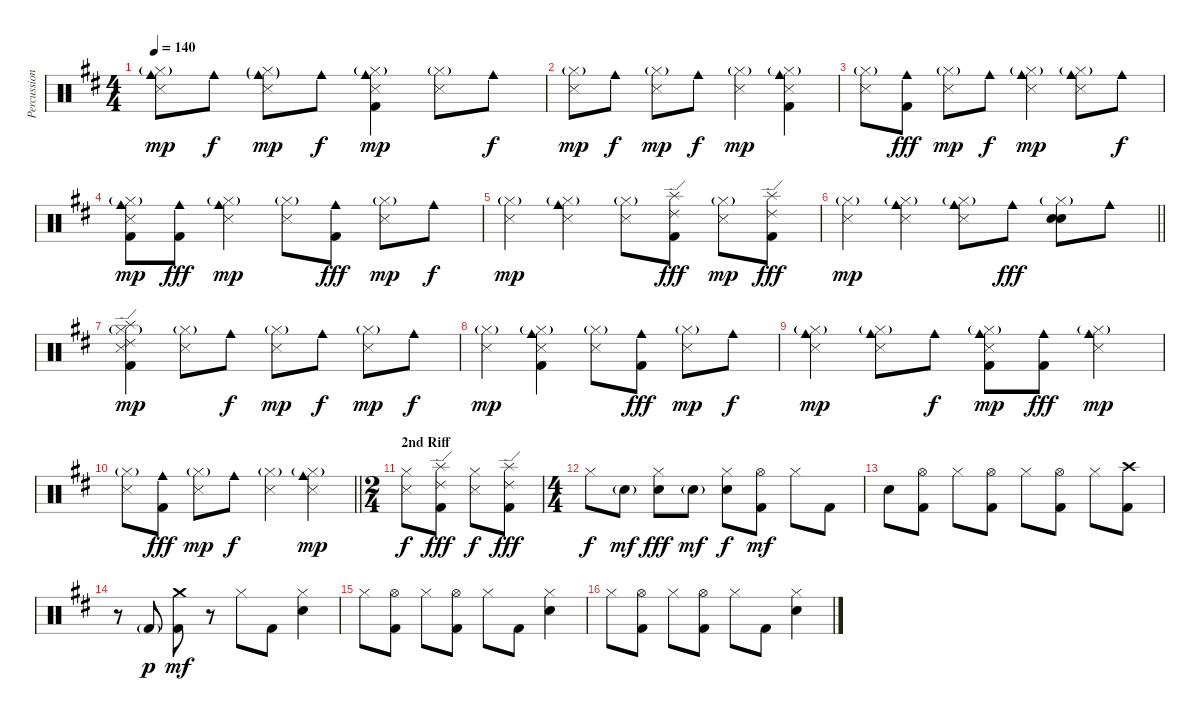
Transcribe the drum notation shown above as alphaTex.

\track ("Percussions" "Percussion") {instrument percussion}
\staff {score}
\articulation defaults
\ts (4 4)
\tempo 140
\clef neutral
\ks d
("Cowbell medium (hit)" "Snare (side stick) 3" "Hi-Hat (closed)"{g}).8{dy mp} "Cowbell medium (hit)".8{dy f} ("Cowbell medium (hit)"{g} "Snare (side stick) 3" "Hi-Hat (closed)"{g}).8{dy mp} "Cowbell medium (hit)".8{dy f} ("Cowbell medium (hit)" "Snare (side stick) 3" "Kick (hit) 2" "Hi-Hat (closed)"{g}).4{dy mp} ("Snare (side stick) 3" "Hi-Hat (closed)"{g}).8 "Cowbell medium (hit)".8{dy f} |
("Snare (side stick) 3" "Hi-Hat (closed)"{g}).8{dy mp} "Cowbell medium (hit)".8{dy f} ("Snare (side stick) 3" "Hi-Hat (closed)"{g}).8{dy mp} "Cowbell medium (hit)".8{dy f} ("Snare (side stick) 3" "Hi-Hat (closed)"{g}).4{dy mp} ("Cowbell medium (hit)" "Snare (side stick) 3" "Kick (hit) 2" "Hi-Hat (closed)"{g}).4 |
("Snare (side stick) 3" "Hi-Hat (closed)"{g}).8 ("Cowbell medium (hit)" "Kick (hit) 2").8{dy fff} ("Snare (side stick) 3" "Hi-Hat (closed)"{g}).8{dy mp} "Cowbell medium (hit)".8{dy f} ("Cowbell medium (hit)" "Snare (side stick) 3" "Hi-Hat (closed)"{g}).4{dy mp} ("Cowbell medium (hit)" "Snare (side stick) 3" "Hi-Hat (closed)"{g}).8 "Cowbell medium (hit)".8{dy f} |
("Cowbell medium (hit)" "Snare (side stick) 3" "Kick (hit) 2" "Hi-Hat (closed)"{g}).8{dy mp} ("Cowbell medium (hit)" "Kick (hit) 2").8{dy fff} ("Cowbell medium (hit)" "Snare (side stick) 3" "Hi-Hat (closed)"{g}).4{dy mp} ("Snare (side stick) 3" "Hi-Hat (closed)"{g}).8 ("Cowbell medium (hit)" "Kick (hit) 2").8{dy fff} ("Snare (side stick) 3" "Hi-Hat (closed)"{g}).8{dy mp} "Cowbell medium (hit)".8{dy f} |
("Snare (side stick) 3" "Hi-Hat (closed)"{g}).4{dy mp} ("Cowbell medium (hit)" "Snare (side stick) 3" "Hi-Hat (closed)"{g}).4 ("Snare (side stick) 3" "Hi-Hat (closed)"{g}).8 ("Ride (edge) 2" "Splash (hit)" "Kick (hit) 2").8{dy fff} ("Snare (side stick) 3" "Hi-Hat (closed)"{g}).8{dy mp} ("Ride (edge) 2" "Splash (hit)" "Kick (hit) 2").8{dy fff} |
\barLineRight lightlight
("Snare (side stick) 3" "Hi-Hat (closed)"{g}).4{dy mp} ("Cowbell medium (hit)" "Snare (side stick) 3" "Hi-Hat (closed)"{g}).4 ("Cowbell medium (hit)" "Snare (side stick) 3" "Hi-Hat (closed)"{g}).8 "Cowbell medium (hit)".8{dy fff} ("Electric Snare (hit)" "Snare (hit) 2" "Hi-Hat (closed)"{g}).8 "Cowbell medium (hit)".8 |
("Splash (hit)" "Ride (edge) 2" "Snare (side stick) 3" "Kick (hit) 2" "Hi-Hat (closed)"{g}).4{dy mp} ("Snare (side stick) 3" "Hi-Hat (closed)"{g}).8 "Cowbell medium (hit)".8{dy f} ("Snare (side stick) 3" "Hi-Hat (closed)"{g}).8{dy mp} "Cowbell medium (hit)".8{dy f} ("Snare (side stick) 3" "Hi-Hat (closed)"{g}).8{dy mp} "Cowbell medium (hit)".8{dy f} |
("Snare (side stick) 3" "Hi-Hat (closed)"{g}).4{dy mp} ("Cowbell medium (hit)" "Snare (side stick) 3" "Kick (hit) 2" "Hi-Hat (closed)"{g}).4 ("Snare (side stick) 3" "Hi-Hat (closed)"{g}).8 ("Cowbell medium (hit)" "Kick (hit) 2").8{dy fff} ("Snare (side stick) 3" "Hi-Hat (closed)"{g}).8{dy mp} "Cowbell medium (hit)".8{dy f} |
("Cowbell medium (hit)" "Snare (side stick) 3" "Hi-Hat (closed)"{g}).4{dy mp} ("Cowbell medium (hit)" "Snare (side stick) 3" "Hi-Hat (closed)"{g}).8 "Cowbell medium (hit)".8{dy f} ("Cowbell medium (hit)" "Snare (side stick) 3" "Kick (hit) 2" "Hi-Hat (closed)"{g}).8{dy mp} ("Cowbell medium (hit)" "Kick (hit) 2").8{dy fff} ("Cowbell medium (hit)" "Snare (side stick) 3" "Hi-Hat (closed)"{g}).4{dy mp} |
\barLineRight lightlight
("Snare (side stick) 3" "Hi-Hat (closed)"{g}).8 ("Cowbell medium (hit)" "Kick (hit) 2").8{dy fff} ("Snare (side stick) 3" "Hi-Hat (closed)"{g}).8{dy mp} "Cowbell medium (hit)".8{dy f} ("Snare (side stick) 3" "Hi-Hat (closed)"{g}).4 ("Cowbell medium (hit)" "Snare (side stick) 3" "Hi-Hat (closed)"{g}).4{dy mp} |
\ts (2 4)
\section ("" "2nd Riff")
("Snare (side stick) 3" "Hi-Hat (closed)").8{dy f} ("Ride (edge) 2" "Splash (hit)" "Kick (hit) 2").8{dy fff} ("Snare (side stick) 3" "Hi-Hat (closed)").8{dy f} ("Ride (edge) 2" "Splash (hit)" "Kick (hit) 2").8{dy fff} |
\ts (4 4)
"Hi-Hat (closed)".8{dy f} "Electric Snare (hit)"{g}.8{dy mf} ("Electric Snare (hit)" "Hi-Hat (closed)").8{dy fff} "Electric Snare (hit)"{g}.8{dy mf} ("Electric Snare (hit)" "Hi-Hat (closed)").8{dy f} ("Kick (hit) 2" "Hi-Hat (open)").8{dy mf} "Hi-Hat (closed)".8 "Kick (hit) 2".8 |
"Electric Snare (hit)".8 ("Kick (hit) 2" "Hi-Hat (open)").8 "Hi-Hat (closed)".8 ("Kick (hit) 2" "Hi-Hat (open)").8 "Hi-Hat (closed)".8 ("Kick (hit) 2" "Hi-Hat (open)").8 "Hi-Hat (closed)".8 ("Crash high (hit)" "Kick (hit) 2").8 |
r.8 "Kick (hit) 2"{g}.8{dy p} ("Crash medium (hit)" "Kick (hit) 2").8{dy mf} r.8 "Hi-Hat (closed)".8 "Kick (hit) 2".8 ("Electric Snare (hit)" "Hi-Hat (closed)").4 |
"Hi-Hat (closed)".8 ("Kick (hit) 2" "Hi-Hat (open)").8 "Hi-Hat (closed)".8 ("Kick (hit) 2" "Hi-Hat (open)").8 "Hi-Hat (closed)".8 "Kick (hit) 2".8 ("Electric Snare (hit)" "Hi-Hat (closed)").4 |
"Hi-Hat (closed)".8 ("Kick (hit) 2" "Hi-Hat (open)").8 "Hi-Hat (closed)".8 ("Kick (hit) 2" "Hi-Hat (open)").8 "Hi-Hat (closed)".8 "Kick (hit) 2".8 ("Electric Snare (hit)" "Hi-Hat (closed)").4
